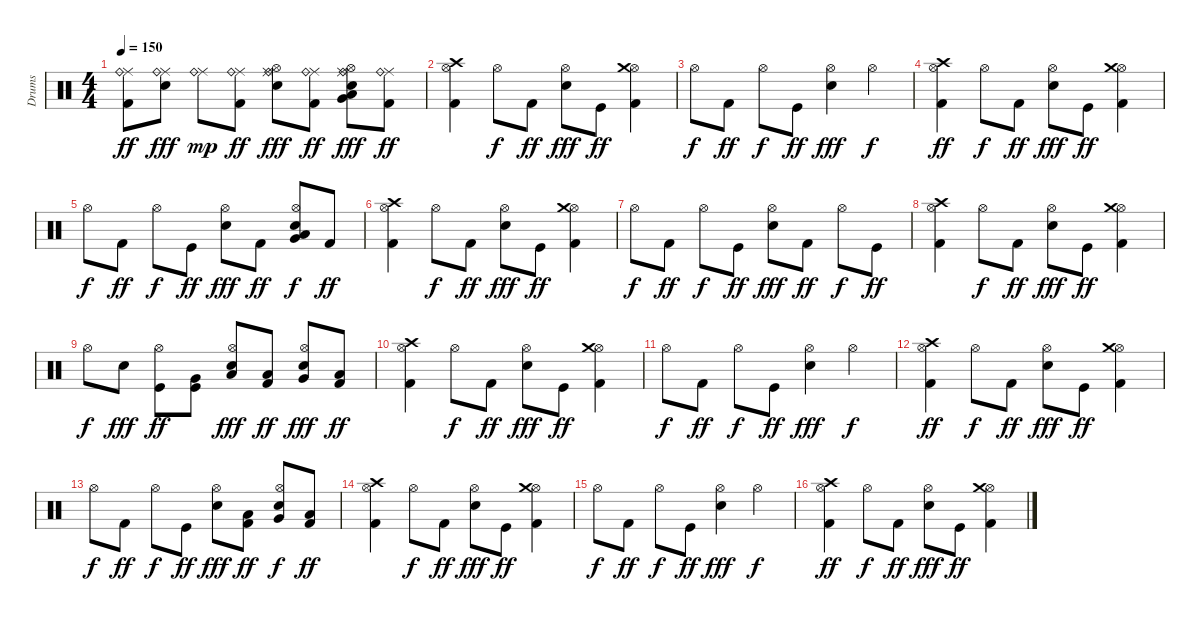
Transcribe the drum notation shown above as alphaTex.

\track ("Drums" "Drums") {instrument percussion}
\staff {score}
\articulation defaults
\ts (4 4)
\tempo 150
\clef neutral
\ks c
("Ride (middle)" "Ride (bell)" "Kick (hit) 2").8{dy ff} ("Ride (middle)" "Ride (bell)" "Electric Snare (hit)").8{dy fff} ("Ride (middle)" "Ride (bell)").8{dy mp} ("Ride (middle)" "Ride (bell)" "Kick (hit) 2").8{dy ff} ("Ride (middle)" "Ride (bell)" "Electric Snare (hit)" "Hi-Hat (open)").8{dy fff} ("Ride (middle)" "Ride (bell)" "Kick (hit) 2").8{dy ff} ("Ride (middle)" "Ride (bell)" "Electric Snare (hit)" "Hi-Hat (open)" "Very Low Tom (hit)" "Low Tom (hit)").8{dy fff} ("Ride (middle)" "Ride (bell)" "Kick (hit) 2").8{dy ff} |
("Crash high (hit)" "Hi-Hat (open)" "Kick (hit) 2").4 "Hi-Hat (open)".8{dy f} "Kick (hit) 2".8{dy ff} ("Hi-Hat (open)" "Electric Snare (hit)").8{dy fff} "Kick (hit)".8{dy ff} ("Hi-Hat (open)" "Crash medium (hit)" "Kick (hit) 2").4 |
"Hi-Hat (open)".8{dy f} "Kick (hit) 2".8{dy ff} "Hi-Hat (open)".8{dy f} "Kick (hit)".8{dy ff} ("Hi-Hat (open)" "Electric Snare (hit)").4{dy fff} "Hi-Hat (open)".4{dy f} |
("Hi-Hat (open)" "Crash high (hit)" "Kick (hit) 2").4{dy ff} "Hi-Hat (open)".8{dy f} "Kick (hit) 2".8{dy ff} ("Hi-Hat (open)" "Electric Snare (hit)").8{dy fff} "Kick (hit)".8{dy ff} ("Hi-Hat (open)" "Crash medium (hit)" "Kick (hit) 2").4 |
"Hi-Hat (open)".8{dy f} "Kick (hit) 2".8{dy ff} "Hi-Hat (open)".8{dy f} "Kick (hit)".8{dy ff} ("Hi-Hat (open)" "Electric Snare (hit)").8{dy fff} "Kick (hit) 2".8{dy ff} ("Hi-Hat (open)" "Electric Snare (hit)" "Low Tom (hit)" "Very Low Tom (hit)").8{dy f} "Kick (hit) 2".8{dy ff} |
("Hi-Hat (open)" "Crash high (hit)" "Kick (hit) 2").4 "Hi-Hat (open)".8{dy f} "Kick (hit) 2".8{dy ff} ("Hi-Hat (open)" "Electric Snare (hit)").8{dy fff} "Kick (hit)".8{dy ff} ("Hi-Hat (open)" "Crash medium (hit)" "Kick (hit) 2").4 |
"Hi-Hat (open)".8{dy f} "Kick (hit) 2".8{dy ff} "Hi-Hat (open)".8{dy f} "Kick (hit)".8{dy ff} ("Hi-Hat (open)" "Electric Snare (hit)").8{dy fff} "Kick (hit) 2".8{dy ff} "Hi-Hat (open)".8{dy f} "Kick (hit)".8{dy ff} |
("Hi-Hat (open)" "Crash high (hit)" "Kick (hit) 2").4 "Hi-Hat (open)".8{dy f} "Kick (hit) 2".8{dy ff} ("Hi-Hat (open)" "Electric Snare (hit)").8{dy fff} "Kick (hit)".8{dy ff} ("Hi-Hat (open)" "Crash medium (hit)" "Kick (hit) 2").4 |
"Hi-Hat (open)".8{dy f} "Electric Snare (hit)".8{dy fff} ("Hi-Hat (open)" "Kick (hit)").8{dy ff} ("Very Low Tom (hit)" "Kick (hit)").8 ("Hi-Hat (open)" "Electric Snare (hit)" "Low Tom (hit)").8{dy fff} ("Low Tom (hit)" "Kick (hit) 2").8{dy ff} ("Hi-Hat (open)" "Very Low Tom (hit)" "Electric Snare (hit)").8{dy fff} ("Low Floor Tom (hit)" "Kick (hit) 2").8{dy ff} |
("Hi-Hat (open)" "Crash high (hit)" "Kick (hit) 2").4 "Hi-Hat (open)".8{dy f} "Kick (hit) 2".8{dy ff} ("Hi-Hat (open)" "Electric Snare (hit)").8{dy fff} "Kick (hit)".8{dy ff} ("Hi-Hat (open)" "Crash medium (hit)" "Kick (hit) 2").4 |
"Hi-Hat (open)".8{dy f} "Kick (hit) 2".8{dy ff} "Hi-Hat (open)".8{dy f} "Kick (hit)".8{dy ff} ("Hi-Hat (open)" "Electric Snare (hit)").4{dy fff} "Hi-Hat (open)".4{dy f} |
("Hi-Hat (open)" "Crash high (hit)" "Kick (hit) 2").4{dy ff} "Hi-Hat (open)".8{dy f} "Kick (hit) 2".8{dy ff} ("Hi-Hat (open)" "Electric Snare (hit)").8{dy fff} "Kick (hit)".8{dy ff} ("Hi-Hat (open)" "Crash medium (hit)" "Kick (hit) 2").4 |
"Hi-Hat (open)".8{dy f} "Kick (hit) 2".8{dy ff} "Hi-Hat (open)".8{dy f} "Kick (hit)".8{dy ff} ("Hi-Hat (open)" "Electric Snare (hit)").8{dy fff} ("Low Tom (hit)" "Kick (hit) 2").8{dy ff} ("Electric Snare (hit)" "Very Low Tom (hit)" "Hi-Hat (open)").8{dy f} ("Low Floor Tom (hit)" "Kick (hit) 2").8{dy ff} |
("Hi-Hat (open)" "Crash high (hit)" "Kick (hit) 2").4 "Hi-Hat (open)".8{dy f} "Kick (hit) 2".8{dy ff} ("Hi-Hat (open)" "Electric Snare (hit)").8{dy fff} "Kick (hit)".8{dy ff} ("Hi-Hat (open)" "Crash medium (hit)" "Kick (hit) 2").4 |
"Hi-Hat (open)".8{dy f} "Kick (hit) 2".8{dy ff} "Hi-Hat (open)".8{dy f} "Kick (hit)".8{dy ff} ("Hi-Hat (open)" "Electric Snare (hit)").4{dy fff} "Hi-Hat (open)".4{dy f} |
("Hi-Hat (open)" "Crash high (hit)" "Kick (hit) 2").4{dy ff} "Hi-Hat (open)".8{dy f} "Kick (hit) 2".8{dy ff} ("Hi-Hat (open)" "Electric Snare (hit)").8{dy fff} "Kick (hit)".8{dy ff} ("Hi-Hat (open)" "Crash medium (hit)" "Kick (hit) 2").4
